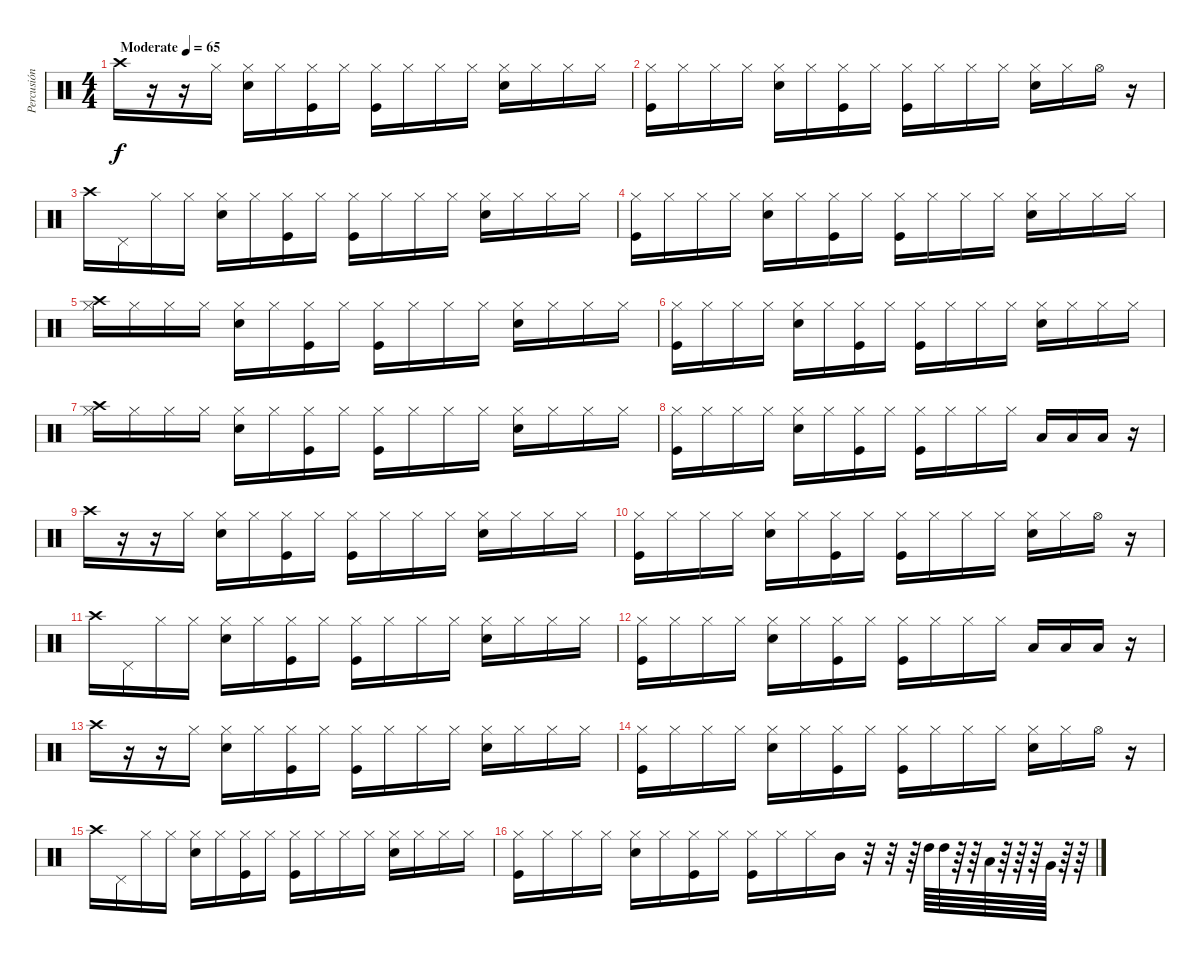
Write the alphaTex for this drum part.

\track ("Percusión" "Percusión") {instrument percussion}
\staff {score}
\articulation defaults
\ts (4 4)
\tempo (65 "Moderate")
\clef neutral
\ks c "Crash high (hit)".16{dy f}
r.16 r.16 "Hi-Hat (closed)".16 ("Hi-Hat (closed)" "Snare (hit) 2").16 "Hi-Hat (closed)".16 ("Hi-Hat (closed)" "Kick (hit)").16 "Hi-Hat (closed)".16 ("Hi-Hat (closed)" "Kick (hit)").16 "Hi-Hat (closed)".16 "Hi-Hat (closed)".16 "Hi-Hat (closed)".16 ("Hi-Hat (closed)" "Snare (hit) 2").16 "Hi-Hat (closed)".16 "Hi-Hat (closed)".16 "Hi-Hat (closed)".16 |
("Hi-Hat (closed)" "Kick (hit)").16 "Hi-Hat (closed)".16 "Hi-Hat (closed)".16 "Hi-Hat (closed)".16 ("Hi-Hat (closed)" "Snare (hit) 2").16 "Hi-Hat (closed)".16 ("Hi-Hat (closed)" "Kick (hit)").16 "Hi-Hat (closed)".16 ("Hi-Hat (closed)" "Kick (hit)").16 "Hi-Hat (closed)".16 "Hi-Hat (closed)".16 "Hi-Hat (closed)".16 ("Hi-Hat (closed)" "Snare (hit) 2").16 "Hi-Hat (closed)".16 "Hi-Hat (open)".16 r.16 |
"Crash high (hit)".16 "Pedal Hi-Hat (hit)".16 "Hi-Hat (closed)".16 "Hi-Hat (closed)".16 ("Hi-Hat (closed)" "Snare (hit) 2").16 "Hi-Hat (closed)".16 ("Hi-Hat (closed)" "Kick (hit)").16 "Hi-Hat (closed)".16 ("Hi-Hat (closed)" "Kick (hit)").16 "Hi-Hat (closed)".16 "Hi-Hat (closed)".16 "Hi-Hat (closed)".16 ("Hi-Hat (closed)" "Snare (hit) 2").16 "Hi-Hat (closed)".16 "Hi-Hat (closed)".16 "Hi-Hat (closed)".16 |
("Hi-Hat (closed)" "Kick (hit)").16 "Hi-Hat (closed)".16 "Hi-Hat (closed)".16 "Hi-Hat (closed)".16 ("Hi-Hat (closed)" "Snare (hit) 2").16 "Hi-Hat (closed)".16 ("Hi-Hat (closed)" "Kick (hit)").16 "Hi-Hat (closed)".16 ("Hi-Hat (closed)" "Kick (hit)").16 "Hi-Hat (closed)".16 "Hi-Hat (closed)".16 "Hi-Hat (closed)".16 ("Hi-Hat (closed)" "Snare (hit) 2").16 "Hi-Hat (closed)".16 "Hi-Hat (closed)".16 "Hi-Hat (closed)".16 |
("Hi-Hat (closed)" "Crash high (hit)").16 "Hi-Hat (closed)".16 "Hi-Hat (closed)".16 "Hi-Hat (closed)".16 ("Hi-Hat (closed)" "Snare (hit) 2").16 "Hi-Hat (closed)".16 ("Hi-Hat (closed)" "Kick (hit)").16 "Hi-Hat (closed)".16 ("Hi-Hat (closed)" "Kick (hit)").16 "Hi-Hat (closed)".16 "Hi-Hat (closed)".16 "Hi-Hat (closed)".16 ("Hi-Hat (closed)" "Snare (hit) 2").16 "Hi-Hat (closed)".16 "Hi-Hat (closed)".16 "Hi-Hat (closed)".16 |
("Hi-Hat (closed)" "Kick (hit)").16 "Hi-Hat (closed)".16 "Hi-Hat (closed)".16 "Hi-Hat (closed)".16 ("Hi-Hat (closed)" "Snare (hit) 2").16 "Hi-Hat (closed)".16 ("Hi-Hat (closed)" "Kick (hit)").16 "Hi-Hat (closed)".16 ("Hi-Hat (closed)" "Kick (hit)").16 "Hi-Hat (closed)".16 "Hi-Hat (closed)".16 "Hi-Hat (closed)".16 ("Hi-Hat (closed)" "Snare (hit) 2").16 "Hi-Hat (closed)".16 "Hi-Hat (closed)".16 "Hi-Hat (closed)".16 |
("Hi-Hat (closed)" "Crash high (hit)").16 "Hi-Hat (closed)".16 "Hi-Hat (closed)".16 "Hi-Hat (closed)".16 ("Hi-Hat (closed)" "Snare (hit) 2").16 "Hi-Hat (closed)".16 ("Hi-Hat (closed)" "Kick (hit)").16 "Hi-Hat (closed)".16 ("Hi-Hat (closed)" "Kick (hit)").16 "Hi-Hat (closed)".16 "Hi-Hat (closed)".16 "Hi-Hat (closed)".16 ("Hi-Hat (closed)" "Snare (hit) 2").16 "Hi-Hat (closed)".16 "Hi-Hat (closed)".16 "Hi-Hat (closed)".16 |
("Hi-Hat (closed)" "Kick (hit)").16 "Hi-Hat (closed)".16 "Hi-Hat (closed)".16 "Hi-Hat (closed)".16 ("Hi-Hat (closed)" "Snare (hit) 2").16 "Hi-Hat (closed)".16 ("Hi-Hat (closed)" "Kick (hit)").16 "Hi-Hat (closed)".16 ("Hi-Hat (closed)" "Kick (hit)").16 "Hi-Hat (closed)".16 "Hi-Hat (closed)".16 "Hi-Hat (closed)".16 "Low Tom (hit)".16 "Low Tom (hit)".16 "Low Floor Tom (hit)".16 r.16 |
"Crash high (hit)".16 r.16 r.16 "Hi-Hat (closed)".16 ("Hi-Hat (closed)" "Snare (hit) 2").16 "Hi-Hat (closed)".16 ("Hi-Hat (closed)" "Kick (hit)").16 "Hi-Hat (closed)".16 ("Hi-Hat (closed)" "Kick (hit)").16 "Hi-Hat (closed)".16 "Hi-Hat (closed)".16 "Hi-Hat (closed)".16 ("Hi-Hat (closed)" "Snare (hit) 2").16 "Hi-Hat (closed)".16 "Hi-Hat (closed)".16 "Hi-Hat (closed)".16 |
("Hi-Hat (closed)" "Kick (hit)").16 "Hi-Hat (closed)".16 "Hi-Hat (closed)".16 "Hi-Hat (closed)".16 ("Hi-Hat (closed)" "Snare (hit) 2").16 "Hi-Hat (closed)".16 ("Hi-Hat (closed)" "Kick (hit)").16 "Hi-Hat (closed)".16 ("Hi-Hat (closed)" "Kick (hit)").16 "Hi-Hat (closed)".16 "Hi-Hat (closed)".16 "Hi-Hat (closed)".16 ("Hi-Hat (closed)" "Snare (hit) 2").16 "Hi-Hat (closed)".16 "Hi-Hat (open)".16 r.16 |
"Crash high (hit)".16 "Pedal Hi-Hat (hit)".16 "Hi-Hat (closed)".16 "Hi-Hat (closed)".16 ("Hi-Hat (closed)" "Snare (hit) 2").16 "Hi-Hat (closed)".16 ("Hi-Hat (closed)" "Kick (hit)").16 "Hi-Hat (closed)".16 ("Hi-Hat (closed)" "Kick (hit)").16 "Hi-Hat (closed)".16 "Hi-Hat (closed)".16 "Hi-Hat (closed)".16 ("Hi-Hat (closed)" "Snare (hit) 2").16 "Hi-Hat (closed)".16 "Hi-Hat (closed)".16 "Hi-Hat (closed)".16 |
("Hi-Hat (closed)" "Kick (hit)").16 "Hi-Hat (closed)".16 "Hi-Hat (closed)".16 "Hi-Hat (closed)".16 ("Hi-Hat (closed)" "Snare (hit) 2").16 "Hi-Hat (closed)".16 ("Hi-Hat (closed)" "Kick (hit)").16 "Hi-Hat (closed)".16 ("Hi-Hat (closed)" "Kick (hit)").16 "Hi-Hat (closed)".16 "Hi-Hat (closed)".16 "Hi-Hat (closed)".16 "Low Tom (hit)".16 "Low Tom (hit)".16 "Low Floor Tom (hit)".16 r.16 |
"Crash high (hit)".16 r.16 r.16 "Hi-Hat (closed)".16 ("Hi-Hat (closed)" "Snare (hit) 2").16 "Hi-Hat (closed)".16 ("Hi-Hat (closed)" "Kick (hit)").16 "Hi-Hat (closed)".16 ("Hi-Hat (closed)" "Kick (hit)").16 "Hi-Hat (closed)".16 "Hi-Hat (closed)".16 "Hi-Hat (closed)".16 ("Hi-Hat (closed)" "Snare (hit) 2").16 "Hi-Hat (closed)".16 "Hi-Hat (closed)".16 "Hi-Hat (closed)".16 |
("Hi-Hat (closed)" "Kick (hit)").16 "Hi-Hat (closed)".16 "Hi-Hat (closed)".16 "Hi-Hat (closed)".16 ("Hi-Hat (closed)" "Snare (hit) 2").16 "Hi-Hat (closed)".16 ("Hi-Hat (closed)" "Kick (hit)").16 "Hi-Hat (closed)".16 ("Hi-Hat (closed)" "Kick (hit)").16 "Hi-Hat (closed)".16 "Hi-Hat (closed)".16 "Hi-Hat (closed)".16 ("Hi-Hat (closed)" "Snare (hit) 2").16 "Hi-Hat (closed)".16 "Hi-Hat (open)".16 r.16 |
"Crash high (hit)".16 "Pedal Hi-Hat (hit)".16 "Hi-Hat (closed)".16 "Hi-Hat (closed)".16 ("Hi-Hat (closed)" "Snare (hit) 2").16 "Hi-Hat (closed)".16 ("Hi-Hat (closed)" "Kick (hit)").16 "Hi-Hat (closed)".16 ("Hi-Hat (closed)" "Kick (hit)").16 "Hi-Hat (closed)".16 "Hi-Hat (closed)".16 "Hi-Hat (closed)".16 ("Hi-Hat (closed)" "Snare (hit) 2").16 "Hi-Hat (closed)".16 "Hi-Hat (closed)".16 "Hi-Hat (closed)".16 |
("Hi-Hat (closed)" "Kick (hit)").16 "Hi-Hat (closed)".16 "Hi-Hat (closed)".16 "Hi-Hat (closed)".16 ("Hi-Hat (closed)" "Snare (hit) 2").16 "Hi-Hat (closed)".16 ("Hi-Hat (closed)" "Kick (hit)").16 "Hi-Hat (closed)".16 ("Hi-Hat (closed)" "Kick (hit)").16 "Hi-Hat (closed)".16 "Hi-Hat (closed)".16 "Mid Tom (hit)".16 r.32 r.32 r.64 "High Tom (hit)".64 "High Tom (hit)".64 r.64 r.64 "Low Tom (hit)".64 r.64 r.64 r.64 "Very Low Tom (hit)".64 r.64 r.64
